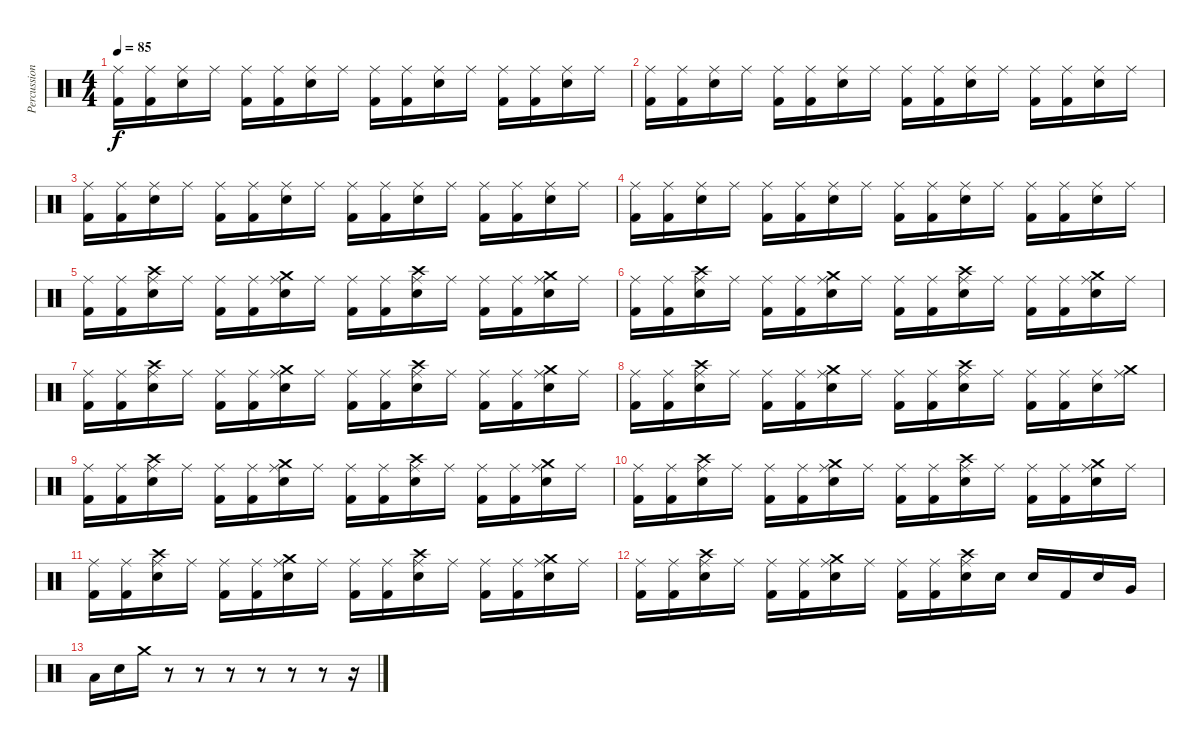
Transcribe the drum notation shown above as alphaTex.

\track ("Percussion" "Percussion") {instrument percussion}
\staff {score}
\articulation defaults
\ts (4 4)
\tempo 85
\clef neutral
\ks c
("Ride (middle)" "Kick (hit) 2").16{dy f} ("Ride (middle)" "Kick (hit) 2").16 ("Ride (middle)" "Snare (hit) 2").16 "Ride (middle)".16 ("Ride (middle)" "Kick (hit) 2").16 ("Ride (middle)" "Kick (hit) 2").16 ("Ride (middle)" "Snare (hit) 2").16 "Ride (middle)".16 ("Ride (middle)" "Kick (hit) 2").16 ("Ride (middle)" "Kick (hit) 2").16 ("Ride (middle)" "Snare (hit) 2").16 "Ride (middle)".16 ("Ride (middle)" "Kick (hit) 2").16 ("Ride (middle)" "Kick (hit) 2").16 ("Ride (middle)" "Snare (hit) 2").16 "Ride (middle)".16 |
("Ride (middle)" "Kick (hit) 2").16 ("Ride (middle)" "Kick (hit) 2").16 ("Ride (middle)" "Snare (hit) 2").16 "Ride (middle)".16 ("Ride (middle)" "Kick (hit) 2").16 ("Ride (middle)" "Kick (hit) 2").16 ("Ride (middle)" "Snare (hit) 2").16 "Ride (middle)".16 ("Ride (middle)" "Kick (hit) 2").16 ("Ride (middle)" "Kick (hit) 2").16 ("Ride (middle)" "Snare (hit) 2").16 "Ride (middle)".16 ("Ride (middle)" "Kick (hit) 2").16 ("Ride (middle)" "Kick (hit) 2").16 ("Ride (middle)" "Snare (hit) 2").16 "Ride (middle)".16 |
("Ride (middle)" "Kick (hit) 2").16 ("Ride (middle)" "Kick (hit) 2").16 ("Ride (middle)" "Snare (hit) 2").16 "Ride (middle)".16 ("Ride (middle)" "Kick (hit) 2").16 ("Ride (middle)" "Kick (hit) 2").16 ("Ride (middle)" "Snare (hit) 2").16 "Ride (middle)".16 ("Ride (middle)" "Kick (hit) 2").16 ("Ride (middle)" "Kick (hit) 2").16 ("Ride (middle)" "Snare (hit) 2").16 "Ride (middle)".16 ("Ride (middle)" "Kick (hit) 2").16 ("Ride (middle)" "Kick (hit) 2").16 ("Ride (middle)" "Snare (hit) 2").16 "Ride (middle)".16 |
("Ride (middle)" "Kick (hit) 2").16 ("Ride (middle)" "Kick (hit) 2").16 ("Ride (middle)" "Snare (hit) 2").16 "Ride (middle)".16 ("Ride (middle)" "Kick (hit) 2").16 ("Ride (middle)" "Kick (hit) 2").16 ("Ride (middle)" "Snare (hit) 2").16 "Ride (middle)".16 ("Ride (middle)" "Kick (hit) 2").16 ("Ride (middle)" "Kick (hit) 2").16 ("Ride (middle)" "Snare (hit) 2").16 "Ride (middle)".16 ("Ride (middle)" "Kick (hit) 2").16 ("Ride (middle)" "Kick (hit) 2").16 ("Ride (middle)" "Snare (hit) 2").16 "Ride (middle)".16 |
("Ride (middle)" "Kick (hit) 2").16 ("Ride (middle)" "Kick (hit) 2").16 ("Crash high (hit)" "Ride (middle)" "Snare (hit) 2").16 "Ride (middle)".16 ("Ride (middle)" "Kick (hit) 2").16 ("Ride (middle)" "Kick (hit) 2").16 ("Crash medium (hit)" "Ride (middle)" "Snare (hit) 2").16 "Ride (middle)".16 ("Ride (middle)" "Kick (hit) 2").16 ("Ride (middle)" "Kick (hit) 2").16 ("Crash high (hit)" "Ride (middle)" "Snare (hit) 2").16 "Ride (middle)".16 ("Ride (middle)" "Kick (hit) 2").16 ("Ride (middle)" "Kick (hit) 2").16 ("Crash medium (hit)" "Ride (middle)" "Snare (hit) 2").16 "Ride (middle)".16 |
("Ride (middle)" "Kick (hit) 2").16 ("Ride (middle)" "Kick (hit) 2").16 ("Crash high (hit)" "Ride (middle)" "Snare (hit) 2").16 "Ride (middle)".16 ("Ride (middle)" "Kick (hit) 2").16 ("Ride (middle)" "Kick (hit) 2").16 ("Crash medium (hit)" "Ride (middle)" "Snare (hit) 2").16 "Ride (middle)".16 ("Ride (middle)" "Kick (hit) 2").16 ("Ride (middle)" "Kick (hit) 2").16 ("Crash high (hit)" "Ride (middle)" "Snare (hit) 2").16 "Ride (middle)".16 ("Ride (middle)" "Kick (hit) 2").16 ("Ride (middle)" "Kick (hit) 2").16 ("Crash medium (hit)" "Ride (middle)" "Snare (hit) 2").16 "Ride (middle)".16 |
("Ride (middle)" "Kick (hit) 2").16 ("Ride (middle)" "Kick (hit) 2").16 ("Crash high (hit)" "Ride (middle)" "Snare (hit) 2").16 "Ride (middle)".16 ("Ride (middle)" "Kick (hit) 2").16 ("Ride (middle)" "Kick (hit) 2").16 ("Crash medium (hit)" "Ride (middle)" "Snare (hit) 2").16 "Ride (middle)".16 ("Ride (middle)" "Kick (hit) 2").16 ("Ride (middle)" "Kick (hit) 2").16 ("Crash high (hit)" "Ride (middle)" "Snare (hit) 2").16 "Ride (middle)".16 ("Ride (middle)" "Kick (hit) 2").16 ("Ride (middle)" "Kick (hit) 2").16 ("Crash medium (hit)" "Ride (middle)" "Snare (hit) 2").16 "Ride (middle)".16 |
("Ride (middle)" "Kick (hit) 2").16 ("Ride (middle)" "Kick (hit) 2").16 ("Crash high (hit)" "Ride (middle)" "Snare (hit) 2").16 "Ride (middle)".16 ("Ride (middle)" "Kick (hit) 2").16 ("Ride (middle)" "Kick (hit) 2").16 ("Crash medium (hit)" "Ride (middle)" "Snare (hit) 2").16 "Ride (middle)".16 ("Ride (middle)" "Kick (hit) 2").16 ("Ride (middle)" "Kick (hit) 2").16 ("Crash high (hit)" "Ride (middle)" "Snare (hit) 2").16 "Ride (middle)".16 ("Ride (middle)" "Kick (hit) 2").16 ("Ride (middle)" "Kick (hit) 2").16 ("Ride (middle)" "Snare (hit) 2").16 ("Crash medium (hit)" "Ride (middle)").16 |
("Ride (middle)" "Kick (hit) 2").16 ("Ride (middle)" "Kick (hit) 2").16 ("Crash high (hit)" "Ride (middle)" "Snare (hit) 2").16 "Ride (middle)".16 ("Ride (middle)" "Kick (hit) 2").16 ("Ride (middle)" "Kick (hit) 2").16 ("Crash medium (hit)" "Ride (middle)" "Snare (hit) 2").16 "Ride (middle)".16 ("Ride (middle)" "Kick (hit) 2").16 ("Ride (middle)" "Kick (hit) 2").16 ("Crash high (hit)" "Ride (middle)" "Snare (hit) 2").16 "Ride (middle)".16 ("Ride (middle)" "Kick (hit) 2").16 ("Ride (middle)" "Kick (hit) 2").16 ("Crash medium (hit)" "Ride (middle)" "Snare (hit) 2").16 "Ride (middle)".16 |
("Ride (middle)" "Kick (hit) 2").16 ("Ride (middle)" "Kick (hit) 2").16 ("Crash high (hit)" "Ride (middle)" "Snare (hit) 2").16 "Ride (middle)".16 ("Ride (middle)" "Kick (hit) 2").16 ("Ride (middle)" "Kick (hit) 2").16 ("Crash medium (hit)" "Ride (middle)" "Snare (hit) 2").16 "Ride (middle)".16 ("Ride (middle)" "Kick (hit) 2").16 ("Ride (middle)" "Kick (hit) 2").16 ("Crash high (hit)" "Ride (middle)" "Snare (hit) 2").16 "Ride (middle)".16 ("Ride (middle)" "Kick (hit) 2").16 ("Ride (middle)" "Kick (hit) 2").16 ("Crash medium (hit)" "Ride (middle)" "Snare (hit) 2").16 "Ride (middle)".16 |
("Ride (middle)" "Kick (hit) 2").16 ("Ride (middle)" "Kick (hit) 2").16 ("Crash high (hit)" "Ride (middle)" "Snare (hit) 2").16 "Ride (middle)".16 ("Ride (middle)" "Kick (hit) 2").16 ("Ride (middle)" "Kick (hit) 2").16 ("Crash medium (hit)" "Ride (middle)" "Snare (hit) 2").16 "Ride (middle)".16 ("Ride (middle)" "Kick (hit) 2").16 ("Ride (middle)" "Kick (hit) 2").16 ("Crash high (hit)" "Ride (middle)" "Snare (hit) 2").16 "Ride (middle)".16 ("Ride (middle)" "Kick (hit) 2").16 ("Ride (middle)" "Kick (hit) 2").16 ("Crash medium (hit)" "Ride (middle)" "Snare (hit) 2").16 "Ride (middle)".16 |
("Ride (middle)" "Kick (hit) 2").16 ("Ride (middle)" "Kick (hit) 2").16 ("Crash high (hit)" "Ride (middle)" "Snare (hit) 2").16 "Ride (middle)".16 ("Ride (middle)" "Kick (hit) 2").16 ("Ride (middle)" "Kick (hit) 2").16 ("Crash medium (hit)" "Ride (middle)" "Snare (hit) 2").16 "Ride (middle)".16 ("Ride (middle)" "Kick (hit) 2").16 ("Ride (middle)" "Kick (hit) 2").16 ("Crash high (hit)" "Ride (middle)" "Snare (hit) 2").16 "Snare (hit) 2".16 "Snare (hit) 2".16 "Kick (hit) 2".16 "Snare (hit) 2".16 "Very Low Tom (hit)".16 |
"Low Tom (hit)".16 "Snare (hit) 2".16 "Crash medium (hit)".16 r.8 r.8 r.8 r.8 r.8 r.8 r.16
